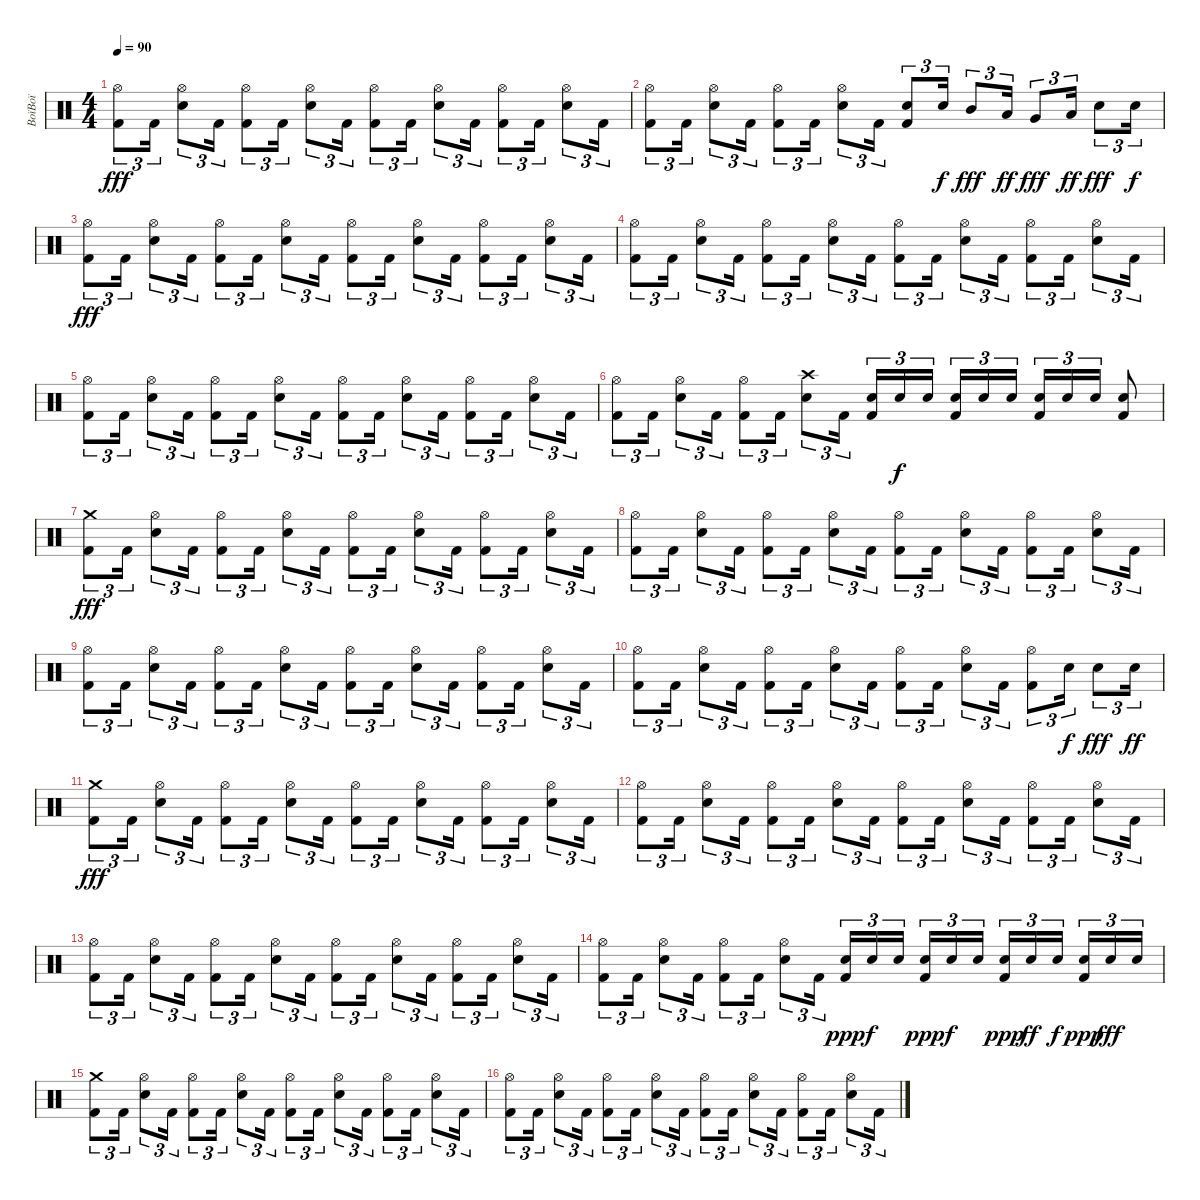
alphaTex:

\track ("BoïBoï" "BoïBoï") {instrument percussion}
\staff {score}
\articulation defaults
\ts (4 4)
\tempo 90
\clef neutral
\ks c
("Hi-Hat (open)" "Kick (hit) 2").8{tu (3 2) dy fff} "Kick (hit) 2".16{tu (3 2)} ("Hi-Hat (open)" "Electric Snare (hit)").8{tu (3 2)} "Kick (hit) 2".16{tu (3 2)} ("Hi-Hat (open)" "Kick (hit) 2").8{tu (3 2)} "Kick (hit) 2".16{tu (3 2)} ("Hi-Hat (open)" "Electric Snare (hit)").8{tu (3 2)} "Kick (hit) 2".16{tu (3 2)} ("Hi-Hat (open)" "Kick (hit) 2").8{tu (3 2)} "Kick (hit) 2".16{tu (3 2)} ("Hi-Hat (open)" "Electric Snare (hit)").8{tu (3 2)} "Kick (hit) 2".16{tu (3 2)} ("Hi-Hat (open)" "Kick (hit) 2").8{tu (3 2)} "Kick (hit) 2".16{tu (3 2)} ("Hi-Hat (open)" "Electric Snare (hit)").8{tu (3 2)} "Kick (hit) 2".16{tu (3 2)} |
("Hi-Hat (open)" "Kick (hit) 2").8{tu (3 2)} "Kick (hit) 2".16{tu (3 2)} ("Hi-Hat (open)" "Electric Snare (hit)").8{tu (3 2)} "Kick (hit) 2".16{tu (3 2)} ("Hi-Hat (open)" "Kick (hit) 2").8{tu (3 2)} "Kick (hit) 2".16{tu (3 2)} ("Hi-Hat (open)" "Electric Snare (hit)").8{tu (3 2)} "Kick (hit) 2".16{tu (3 2)} ("Electric Snare (hit)" "Kick (hit) 2").8{tu (3 2)} "Electric Snare (hit)".16{tu (3 2) dy f} "Mid Tom (hit)".8{tu (3 2) dy fff} "Low Tom (hit)".16{tu (3 2) dy ff} "Very Low Tom (hit)".8{tu (3 2) dy fff} "Low Floor Tom (hit)".16{tu (3 2) dy ff} "Electric Snare (hit)".8{tu (3 2) dy fff} "Electric Snare (hit)".16{tu (3 2) dy f} |
("Hi-Hat (open)" "Kick (hit) 2").8{tu (3 2) dy fff} "Kick (hit) 2".16{tu (3 2)} ("Hi-Hat (open)" "Electric Snare (hit)").8{tu (3 2)} "Kick (hit) 2".16{tu (3 2)} ("Hi-Hat (open)" "Kick (hit) 2").8{tu (3 2)} "Kick (hit) 2".16{tu (3 2)} ("Hi-Hat (open)" "Electric Snare (hit)").8{tu (3 2)} "Kick (hit) 2".16{tu (3 2)} ("Hi-Hat (open)" "Kick (hit) 2").8{tu (3 2)} "Kick (hit) 2".16{tu (3 2)} ("Hi-Hat (open)" "Electric Snare (hit)").8{tu (3 2)} "Kick (hit) 2".16{tu (3 2)} ("Hi-Hat (open)" "Kick (hit) 2").8{tu (3 2)} "Kick (hit) 2".16{tu (3 2)} ("Hi-Hat (open)" "Electric Snare (hit)").8{tu (3 2)} "Kick (hit) 2".16{tu (3 2)} |
("Hi-Hat (open)" "Kick (hit) 2").8{tu (3 2)} "Kick (hit) 2".16{tu (3 2)} ("Hi-Hat (open)" "Electric Snare (hit)").8{tu (3 2)} "Kick (hit) 2".16{tu (3 2)} ("Hi-Hat (open)" "Kick (hit) 2").8{tu (3 2)} "Kick (hit) 2".16{tu (3 2)} ("Hi-Hat (open)" "Electric Snare (hit)").8{tu (3 2)} "Kick (hit) 2".16{tu (3 2)} ("Hi-Hat (open)" "Kick (hit) 2").8{tu (3 2)} "Kick (hit) 2".16{tu (3 2)} ("Hi-Hat (open)" "Electric Snare (hit)").8{tu (3 2)} "Kick (hit) 2".16{tu (3 2)} ("Hi-Hat (open)" "Kick (hit) 2").8{tu (3 2)} "Kick (hit) 2".16{tu (3 2)} ("Hi-Hat (open)" "Electric Snare (hit)").8{tu (3 2)} "Kick (hit) 2".16{tu (3 2)} |
("Hi-Hat (open)" "Kick (hit) 2").8{tu (3 2)} "Kick (hit) 2".16{tu (3 2)} ("Hi-Hat (open)" "Electric Snare (hit)").8{tu (3 2)} "Kick (hit) 2".16{tu (3 2)} ("Hi-Hat (open)" "Kick (hit) 2").8{tu (3 2)} "Kick (hit) 2".16{tu (3 2)} ("Hi-Hat (open)" "Electric Snare (hit)").8{tu (3 2)} "Kick (hit) 2".16{tu (3 2)} ("Hi-Hat (open)" "Kick (hit) 2").8{tu (3 2)} "Kick (hit) 2".16{tu (3 2)} ("Hi-Hat (open)" "Electric Snare (hit)").8{tu (3 2)} "Kick (hit) 2".16{tu (3 2)} ("Hi-Hat (open)" "Kick (hit) 2").8{tu (3 2)} "Kick (hit) 2".16{tu (3 2)} ("Hi-Hat (open)" "Electric Snare (hit)").8{tu (3 2)} "Kick (hit) 2".16{tu (3 2)} |
("Hi-Hat (open)" "Kick (hit) 2").8{tu (3 2)} "Kick (hit) 2".16{tu (3 2)} ("Hi-Hat (open)" "Electric Snare (hit)").8{tu (3 2)} "Kick (hit) 2".16{tu (3 2)} ("Hi-Hat (open)" "Kick (hit) 2").8{tu (3 2)} "Kick (hit) 2".16{tu (3 2)} ("Crash high (hit)" "Electric Snare (hit)").8{tu (3 2)} "Kick (hit) 2".16{tu (3 2)} ("Electric Snare (hit)" "Kick (hit) 2").16{tu (3 2)} "Electric Snare (hit)".16{tu (3 2) dy f} "Electric Snare (hit)".16{tu (3 2) beam splitsecondary} ("Electric Snare (hit)" "Kick (hit) 2").16{tu (3 2)} "Electric Snare (hit)".16{tu (3 2)} "Electric Snare (hit)".16{tu (3 2)} ("Electric Snare (hit)" "Kick (hit) 2").16{tu (3 2)} "Electric Snare (hit)".16{tu (3 2)} "Electric Snare (hit)".16{tu (3 2)} ("Electric Snare (hit)" "Kick (hit) 2").8 |
("Crash medium (hit)" "Kick (hit) 2").8{tu (3 2) dy fff} "Kick (hit) 2".16{tu (3 2)} ("Hi-Hat (open)" "Electric Snare (hit)").8{tu (3 2)} "Kick (hit) 2".16{tu (3 2)} ("Hi-Hat (open)" "Kick (hit) 2").8{tu (3 2)} "Kick (hit) 2".16{tu (3 2)} ("Hi-Hat (open)" "Electric Snare (hit)").8{tu (3 2)} "Kick (hit) 2".16{tu (3 2)} ("Hi-Hat (open)" "Kick (hit) 2").8{tu (3 2)} "Kick (hit) 2".16{tu (3 2)} ("Hi-Hat (open)" "Electric Snare (hit)").8{tu (3 2)} "Kick (hit) 2".16{tu (3 2)} ("Hi-Hat (open)" "Kick (hit) 2").8{tu (3 2)} "Kick (hit) 2".16{tu (3 2)} ("Hi-Hat (open)" "Electric Snare (hit)").8{tu (3 2)} "Kick (hit) 2".16{tu (3 2)} |
("Hi-Hat (open)" "Kick (hit) 2").8{tu (3 2)} "Kick (hit) 2".16{tu (3 2)} ("Hi-Hat (open)" "Electric Snare (hit)").8{tu (3 2)} "Kick (hit) 2".16{tu (3 2)} ("Hi-Hat (open)" "Kick (hit) 2").8{tu (3 2)} "Kick (hit) 2".16{tu (3 2)} ("Hi-Hat (open)" "Electric Snare (hit)").8{tu (3 2)} "Kick (hit) 2".16{tu (3 2)} ("Hi-Hat (open)" "Kick (hit) 2").8{tu (3 2)} "Kick (hit) 2".16{tu (3 2)} ("Hi-Hat (open)" "Electric Snare (hit)").8{tu (3 2)} "Kick (hit) 2".16{tu (3 2)} ("Hi-Hat (open)" "Kick (hit) 2").8{tu (3 2)} "Kick (hit) 2".16{tu (3 2)} ("Hi-Hat (open)" "Electric Snare (hit)").8{tu (3 2)} "Kick (hit) 2".16{tu (3 2)} |
("Hi-Hat (open)" "Kick (hit) 2").8{tu (3 2)} "Kick (hit) 2".16{tu (3 2)} ("Hi-Hat (open)" "Electric Snare (hit)").8{tu (3 2)} "Kick (hit) 2".16{tu (3 2)} ("Hi-Hat (open)" "Kick (hit) 2").8{tu (3 2)} "Kick (hit) 2".16{tu (3 2)} ("Hi-Hat (open)" "Electric Snare (hit)").8{tu (3 2)} "Kick (hit) 2".16{tu (3 2)} ("Hi-Hat (open)" "Kick (hit) 2").8{tu (3 2)} "Kick (hit) 2".16{tu (3 2)} ("Hi-Hat (open)" "Electric Snare (hit)").8{tu (3 2)} "Kick (hit) 2".16{tu (3 2)} ("Hi-Hat (open)" "Kick (hit) 2").8{tu (3 2)} "Kick (hit) 2".16{tu (3 2)} ("Hi-Hat (open)" "Electric Snare (hit)").8{tu (3 2)} "Kick (hit) 2".16{tu (3 2)} |
("Hi-Hat (open)" "Kick (hit) 2").8{tu (3 2)} "Kick (hit) 2".16{tu (3 2)} ("Hi-Hat (open)" "Electric Snare (hit)").8{tu (3 2)} "Kick (hit) 2".16{tu (3 2)} ("Hi-Hat (open)" "Kick (hit) 2").8{tu (3 2)} "Kick (hit) 2".16{tu (3 2)} ("Hi-Hat (open)" "Electric Snare (hit)").8{tu (3 2)} "Kick (hit) 2".16{tu (3 2)} ("Hi-Hat (open)" "Kick (hit) 2").8{tu (3 2)} "Kick (hit) 2".16{tu (3 2)} ("Hi-Hat (open)" "Electric Snare (hit)").8{tu (3 2)} "Kick (hit) 2".16{tu (3 2)} ("Hi-Hat (open)" "Kick (hit) 2").8{tu (3 2)} "Electric Snare (hit)".16{tu (3 2) dy f} "Electric Snare (hit)".8{tu (3 2) dy fff} "Electric Snare (hit)".16{tu (3 2) dy ff} |
("Crash medium (hit)" "Kick (hit) 2").8{tu (3 2) dy fff} "Kick (hit) 2".16{tu (3 2)} ("Hi-Hat (open)" "Electric Snare (hit)").8{tu (3 2)} "Kick (hit) 2".16{tu (3 2)} ("Hi-Hat (open)" "Kick (hit) 2").8{tu (3 2)} "Kick (hit) 2".16{tu (3 2)} ("Hi-Hat (open)" "Electric Snare (hit)").8{tu (3 2)} "Kick (hit) 2".16{tu (3 2)} ("Hi-Hat (open)" "Kick (hit) 2").8{tu (3 2)} "Kick (hit) 2".16{tu (3 2)} ("Hi-Hat (open)" "Electric Snare (hit)").8{tu (3 2)} "Kick (hit) 2".16{tu (3 2)} ("Hi-Hat (open)" "Kick (hit) 2").8{tu (3 2)} "Kick (hit) 2".16{tu (3 2)} ("Hi-Hat (open)" "Electric Snare (hit)").8{tu (3 2)} "Kick (hit) 2".16{tu (3 2)} |
("Hi-Hat (open)" "Kick (hit) 2").8{tu (3 2)} "Kick (hit) 2".16{tu (3 2)} ("Hi-Hat (open)" "Electric Snare (hit)").8{tu (3 2)} "Kick (hit) 2".16{tu (3 2)} ("Hi-Hat (open)" "Kick (hit) 2").8{tu (3 2)} "Kick (hit) 2".16{tu (3 2)} ("Hi-Hat (open)" "Electric Snare (hit)").8{tu (3 2)} "Kick (hit) 2".16{tu (3 2)} ("Hi-Hat (open)" "Kick (hit) 2").8{tu (3 2)} "Kick (hit) 2".16{tu (3 2)} ("Hi-Hat (open)" "Electric Snare (hit)").8{tu (3 2)} "Kick (hit) 2".16{tu (3 2)} ("Hi-Hat (open)" "Kick (hit) 2").8{tu (3 2)} "Kick (hit) 2".16{tu (3 2)} ("Hi-Hat (open)" "Electric Snare (hit)").8{tu (3 2)} "Kick (hit) 2".16{tu (3 2)} |
("Hi-Hat (open)" "Kick (hit) 2").8{tu (3 2)} "Kick (hit) 2".16{tu (3 2)} ("Hi-Hat (open)" "Electric Snare (hit)").8{tu (3 2)} "Kick (hit) 2".16{tu (3 2)} ("Hi-Hat (open)" "Kick (hit) 2").8{tu (3 2)} "Kick (hit) 2".16{tu (3 2)} ("Hi-Hat (open)" "Electric Snare (hit)").8{tu (3 2)} "Kick (hit) 2".16{tu (3 2)} ("Hi-Hat (open)" "Kick (hit) 2").8{tu (3 2)} "Kick (hit) 2".16{tu (3 2)} ("Hi-Hat (open)" "Electric Snare (hit)").8{tu (3 2)} "Kick (hit) 2".16{tu (3 2)} ("Hi-Hat (open)" "Kick (hit) 2").8{tu (3 2)} "Kick (hit) 2".16{tu (3 2)} ("Hi-Hat (open)" "Electric Snare (hit)").8{tu (3 2)} "Kick (hit) 2".16{tu (3 2)} |
("Hi-Hat (open)" "Kick (hit) 2").8{tu (3 2)} "Kick (hit) 2".16{tu (3 2)} ("Hi-Hat (open)" "Electric Snare (hit)").8{tu (3 2)} "Kick (hit) 2".16{tu (3 2)} ("Hi-Hat (open)" "Kick (hit) 2").8{tu (3 2)} "Kick (hit) 2".16{tu (3 2)} ("Hi-Hat (open)" "Electric Snare (hit)").8{tu (3 2)} "Kick (hit) 2".16{tu (3 2)} ("Electric Snare (hit)" "Kick (hit) 2").16{tu (3 2) dy ppp} "Electric Snare (hit)".16{tu (3 2) dy f} "Electric Snare (hit)".16{tu (3 2) beam splitsecondary} ("Electric Snare (hit)" "Kick (hit) 2").16{tu (3 2) dy ppp} "Electric Snare (hit)".16{tu (3 2) dy f} "Electric Snare (hit)".16{tu (3 2)} ("Electric Snare (hit)" "Kick (hit) 2").16{tu (3 2) dy ppp} "Electric Snare (hit)".16{tu (3 2) dy ff} "Electric Snare (hit)".16{tu (3 2) dy f beam splitsecondary} ("Electric Snare (hit)" "Kick (hit) 2").16{tu (3 2) dy ppp} "Electric Snare (hit)".16{tu (3 2) dy fff} "Electric Snare (hit)".16{tu (3 2)} |
("Crash medium (hit)" "Kick (hit) 2").8{tu (3 2)} "Kick (hit) 2".16{tu (3 2)} ("Hi-Hat (open)" "Electric Snare (hit)").8{tu (3 2)} "Kick (hit) 2".16{tu (3 2)} ("Hi-Hat (open)" "Kick (hit) 2").8{tu (3 2)} "Kick (hit) 2".16{tu (3 2)} ("Hi-Hat (open)" "Electric Snare (hit)").8{tu (3 2)} "Kick (hit) 2".16{tu (3 2)} ("Hi-Hat (open)" "Kick (hit) 2").8{tu (3 2)} "Kick (hit) 2".16{tu (3 2)} ("Hi-Hat (open)" "Electric Snare (hit)").8{tu (3 2)} "Kick (hit) 2".16{tu (3 2)} ("Hi-Hat (open)" "Kick (hit) 2").8{tu (3 2)} "Kick (hit) 2".16{tu (3 2)} ("Hi-Hat (open)" "Electric Snare (hit)").8{tu (3 2)} "Kick (hit) 2".16{tu (3 2)} |
("Hi-Hat (open)" "Kick (hit) 2").8{tu (3 2)} "Kick (hit) 2".16{tu (3 2)} ("Hi-Hat (open)" "Electric Snare (hit)").8{tu (3 2)} "Kick (hit) 2".16{tu (3 2)} ("Hi-Hat (open)" "Kick (hit) 2").8{tu (3 2)} "Kick (hit) 2".16{tu (3 2)} ("Hi-Hat (open)" "Electric Snare (hit)").8{tu (3 2)} "Kick (hit) 2".16{tu (3 2)} ("Hi-Hat (open)" "Kick (hit) 2").8{tu (3 2)} "Kick (hit) 2".16{tu (3 2)} ("Hi-Hat (open)" "Electric Snare (hit)").8{tu (3 2)} "Kick (hit) 2".16{tu (3 2)} ("Hi-Hat (open)" "Kick (hit) 2").8{tu (3 2)} "Kick (hit) 2".16{tu (3 2)} ("Hi-Hat (open)" "Electric Snare (hit)").8{tu (3 2)} "Kick (hit) 2".16{tu (3 2)}
